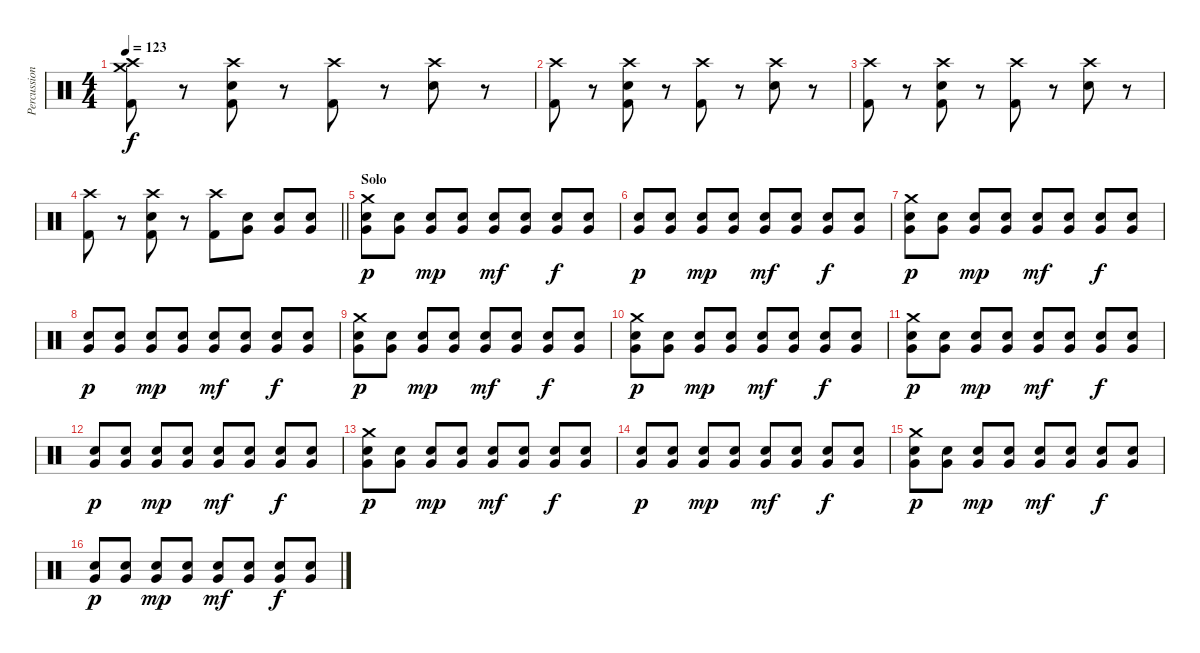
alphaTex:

\track ("Percussion" "Percussion") {instrument percussion}
\staff {score}
\articulation defaults
\ts (4 4)
\tempo 123
\clef neutral
\ks c
("Crash medium (hit)" "Crash high (hit)" "Kick (hit) 2").8{dy f} r.8 ("Crash high (hit)" "Snare (hit) 2" "Kick (hit) 2").8 r.8 ("Crash high (hit)" "Kick (hit) 2").8 r.8 ("Crash high (hit)" "Snare (hit) 2").8 r.8 |
("Crash high (hit)" "Kick (hit) 2").8 r.8 ("Crash high (hit)" "Snare (hit) 2" "Kick (hit) 2").8 r.8 ("Crash high (hit)" "Kick (hit) 2").8 r.8 ("Crash high (hit)" "Snare (hit) 2").8 r.8 |
("Crash high (hit)" "Kick (hit) 2").8 r.8 ("Crash high (hit)" "Snare (hit) 2" "Kick (hit) 2").8 r.8 ("Crash high (hit)" "Kick (hit) 2").8 r.8 ("Crash high (hit)" "Snare (hit) 2").8 r.8 |
\barLineRight lightlight
("Crash high (hit)" "Kick (hit) 2").8 r.8 ("Crash high (hit)" "Snare (hit) 2" "Kick (hit) 2").8 r.8 ("Crash high (hit)" "Kick (hit) 2").8 ("Very Low Tom (hit)" "Snare (hit) 2").8 ("Very Low Tom (hit)" "Snare (hit) 2").8 ("Very Low Tom (hit)" "Snare (hit) 2").8 |
\section ("" "Solo")
("Crash medium (hit)" "Very Low Tom (hit)" "Snare (hit) 2").8{dy p} ("Very Low Tom (hit)" "Snare (hit) 2").8 ("Very Low Tom (hit)" "Snare (hit) 2").8{dy mp} ("Very Low Tom (hit)" "Snare (hit) 2").8 ("Very Low Tom (hit)" "Snare (hit) 2").8{dy mf} ("Very Low Tom (hit)" "Snare (hit) 2").8 ("Very Low Tom (hit)" "Snare (hit) 2").8{dy f} ("Very Low Tom (hit)" "Snare (hit) 2").8 |
("Very Low Tom (hit)" "Snare (hit) 2").8{dy p} ("Very Low Tom (hit)" "Snare (hit) 2").8 ("Very Low Tom (hit)" "Snare (hit) 2").8{dy mp} ("Very Low Tom (hit)" "Snare (hit) 2").8 ("Very Low Tom (hit)" "Snare (hit) 2").8{dy mf} ("Very Low Tom (hit)" "Snare (hit) 2").8 ("Very Low Tom (hit)" "Snare (hit) 2").8{dy f} ("Very Low Tom (hit)" "Snare (hit) 2").8 |
("Crash medium (hit)" "Very Low Tom (hit)" "Snare (hit) 2").8{dy p} ("Very Low Tom (hit)" "Snare (hit) 2").8 ("Very Low Tom (hit)" "Snare (hit) 2").8{dy mp} ("Very Low Tom (hit)" "Snare (hit) 2").8 ("Very Low Tom (hit)" "Snare (hit) 2").8{dy mf} ("Very Low Tom (hit)" "Snare (hit) 2").8 ("Very Low Tom (hit)" "Snare (hit) 2").8{dy f} ("Very Low Tom (hit)" "Snare (hit) 2").8 |
("Very Low Tom (hit)" "Snare (hit) 2").8{dy p} ("Very Low Tom (hit)" "Snare (hit) 2").8 ("Very Low Tom (hit)" "Snare (hit) 2").8{dy mp} ("Very Low Tom (hit)" "Snare (hit) 2").8 ("Very Low Tom (hit)" "Snare (hit) 2").8{dy mf} ("Very Low Tom (hit)" "Snare (hit) 2").8 ("Very Low Tom (hit)" "Snare (hit) 2").8{dy f} ("Very Low Tom (hit)" "Snare (hit) 2").8 |
("Crash medium (hit)" "Very Low Tom (hit)" "Snare (hit) 2").8{dy p} ("Very Low Tom (hit)" "Snare (hit) 2").8 ("Very Low Tom (hit)" "Snare (hit) 2").8{dy mp} ("Very Low Tom (hit)" "Snare (hit) 2").8 ("Very Low Tom (hit)" "Snare (hit) 2").8{dy mf} ("Very Low Tom (hit)" "Snare (hit) 2").8 ("Very Low Tom (hit)" "Snare (hit) 2").8{dy f} ("Very Low Tom (hit)" "Snare (hit) 2").8 |
("Crash medium (hit)" "Very Low Tom (hit)" "Snare (hit) 2").8{dy p} ("Very Low Tom (hit)" "Snare (hit) 2").8 ("Very Low Tom (hit)" "Snare (hit) 2").8{dy mp} ("Very Low Tom (hit)" "Snare (hit) 2").8 ("Very Low Tom (hit)" "Snare (hit) 2").8{dy mf} ("Very Low Tom (hit)" "Snare (hit) 2").8 ("Very Low Tom (hit)" "Snare (hit) 2").8{dy f} ("Very Low Tom (hit)" "Snare (hit) 2").8 |
("Crash medium (hit)" "Very Low Tom (hit)" "Snare (hit) 2").8{dy p} ("Very Low Tom (hit)" "Snare (hit) 2").8 ("Very Low Tom (hit)" "Snare (hit) 2").8{dy mp} ("Very Low Tom (hit)" "Snare (hit) 2").8 ("Very Low Tom (hit)" "Snare (hit) 2").8{dy mf} ("Very Low Tom (hit)" "Snare (hit) 2").8 ("Very Low Tom (hit)" "Snare (hit) 2").8{dy f} ("Very Low Tom (hit)" "Snare (hit) 2").8 |
("Very Low Tom (hit)" "Snare (hit) 2").8{dy p} ("Very Low Tom (hit)" "Snare (hit) 2").8 ("Very Low Tom (hit)" "Snare (hit) 2").8{dy mp} ("Very Low Tom (hit)" "Snare (hit) 2").8 ("Very Low Tom (hit)" "Snare (hit) 2").8{dy mf} ("Very Low Tom (hit)" "Snare (hit) 2").8 ("Very Low Tom (hit)" "Snare (hit) 2").8{dy f} ("Very Low Tom (hit)" "Snare (hit) 2").8 |
("Crash medium (hit)" "Very Low Tom (hit)" "Snare (hit) 2").8{dy p} ("Very Low Tom (hit)" "Snare (hit) 2").8 ("Very Low Tom (hit)" "Snare (hit) 2").8{dy mp} ("Very Low Tom (hit)" "Snare (hit) 2").8 ("Very Low Tom (hit)" "Snare (hit) 2").8{dy mf} ("Very Low Tom (hit)" "Snare (hit) 2").8 ("Very Low Tom (hit)" "Snare (hit) 2").8{dy f} ("Very Low Tom (hit)" "Snare (hit) 2").8 |
("Very Low Tom (hit)" "Snare (hit) 2").8{dy p} ("Very Low Tom (hit)" "Snare (hit) 2").8 ("Very Low Tom (hit)" "Snare (hit) 2").8{dy mp} ("Very Low Tom (hit)" "Snare (hit) 2").8 ("Very Low Tom (hit)" "Snare (hit) 2").8{dy mf} ("Very Low Tom (hit)" "Snare (hit) 2").8 ("Very Low Tom (hit)" "Snare (hit) 2").8{dy f} ("Very Low Tom (hit)" "Snare (hit) 2").8 |
("Crash medium (hit)" "Very Low Tom (hit)" "Snare (hit) 2").8{dy p} ("Very Low Tom (hit)" "Snare (hit) 2").8 ("Very Low Tom (hit)" "Snare (hit) 2").8{dy mp} ("Very Low Tom (hit)" "Snare (hit) 2").8 ("Very Low Tom (hit)" "Snare (hit) 2").8{dy mf} ("Very Low Tom (hit)" "Snare (hit) 2").8 ("Very Low Tom (hit)" "Snare (hit) 2").8{dy f} ("Very Low Tom (hit)" "Snare (hit) 2").8 |
("Very Low Tom (hit)" "Snare (hit) 2").8{dy p} ("Very Low Tom (hit)" "Snare (hit) 2").8 ("Very Low Tom (hit)" "Snare (hit) 2").8{dy mp} ("Very Low Tom (hit)" "Snare (hit) 2").8 ("Very Low Tom (hit)" "Snare (hit) 2").8{dy mf} ("Very Low Tom (hit)" "Snare (hit) 2").8 ("Very Low Tom (hit)" "Snare (hit) 2").8{dy f} ("Very Low Tom (hit)" "Snare (hit) 2").8
